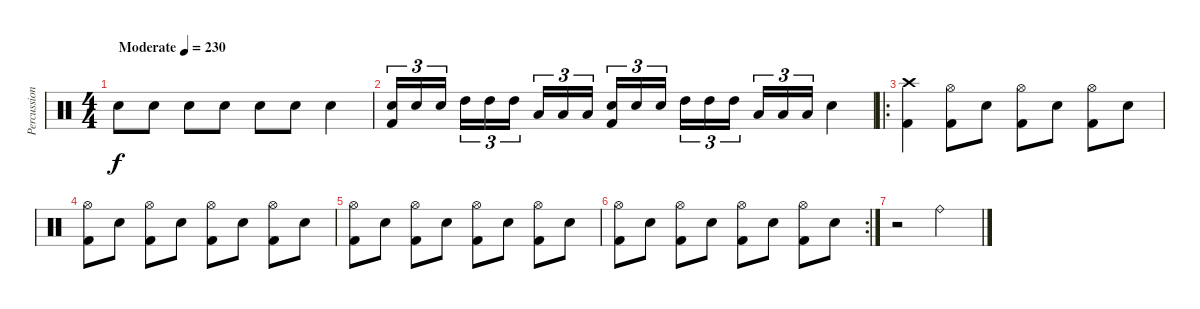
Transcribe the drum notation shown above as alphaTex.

\track ("Percussion" "Percussion") {instrument percussion}
\staff {score}
\articulation defaults
\ts (4 4)
\tempo (230 "Moderate")
\clef neutral
\ks c "Electric Snare (hit)".8{dy f} "Electric Snare (hit)".8 "Electric Snare (hit)".8 "Electric Snare (hit)".8 "Electric Snare (hit)".8 "Electric Snare (hit)".8 "Electric Snare (hit)".4
|
("Electric Snare (hit)" "Kick (hit) 2").16{tu (3 2)} "Electric Snare (hit)".16{tu (3 2)} "Electric Snare (hit)".16{tu (3 2) beam splitsecondary} "High Tom (hit)".16{tu (3 2)} "High Tom (hit)".16{tu (3 2)} "High Tom (hit)".16{tu (3 2)} "Low Tom (hit)".16{tu (3 2)} "Low Tom (hit)".16{tu (3 2)} "Low Tom (hit)".16{tu (3 2) beam splitsecondary} ("Electric Snare (hit)" "Kick (hit) 2").16{tu (3 2)} "Electric Snare (hit)".16{tu (3 2)} "Electric Snare (hit)".16{tu (3 2)} "High Tom (hit)".16{tu (3 2)} "High Tom (hit)".16{tu (3 2)} "High Tom (hit)".16{tu (3 2) beam splitsecondary} "Low Tom (hit)".16{tu (3 2)} "Low Tom (hit)".16{tu (3 2)} "Low Tom (hit)".16{tu (3 2)} "Electric Snare (hit)".4 |
\ro
("Crash high (hit)" "Kick (hit) 2").4 ("Hi-Hat (open)" "Kick (hit) 2").8 "Electric Snare (hit)".8 ("Hi-Hat (open)" "Kick (hit) 2").8 "Electric Snare (hit)".8 ("Hi-Hat (open)" "Kick (hit) 2").8 "Electric Snare (hit)".8 |
("Hi-Hat (open)" "Kick (hit) 2").8 "Electric Snare (hit)".8 ("Hi-Hat (open)" "Kick (hit) 2").8 "Electric Snare (hit)".8 ("Hi-Hat (open)" "Kick (hit) 2").8 "Electric Snare (hit)".8 ("Hi-Hat (open)" "Kick (hit) 2").8 "Electric Snare (hit)".8 |
("Hi-Hat (open)" "Kick (hit) 2").8 "Electric Snare (hit)".8 ("Hi-Hat (open)" "Kick (hit) 2").8 "Electric Snare (hit)".8 ("Hi-Hat (open)" "Kick (hit) 2").8 "Electric Snare (hit)".8 ("Hi-Hat (open)" "Kick (hit) 2").8 "Electric Snare (hit)".8 |
\rc 2
("Hi-Hat (open)" "Kick (hit) 2").8 "Electric Snare (hit)".8 ("Hi-Hat (open)" "Kick (hit) 2").8 "Electric Snare (hit)".8 ("Hi-Hat (open)" "Kick (hit) 2").8 "Electric Snare (hit)".8 ("Hi-Hat (open)" "Kick (hit) 2").8 "Electric Snare (hit)".8 |
r.2 "Ride (bell)".2
